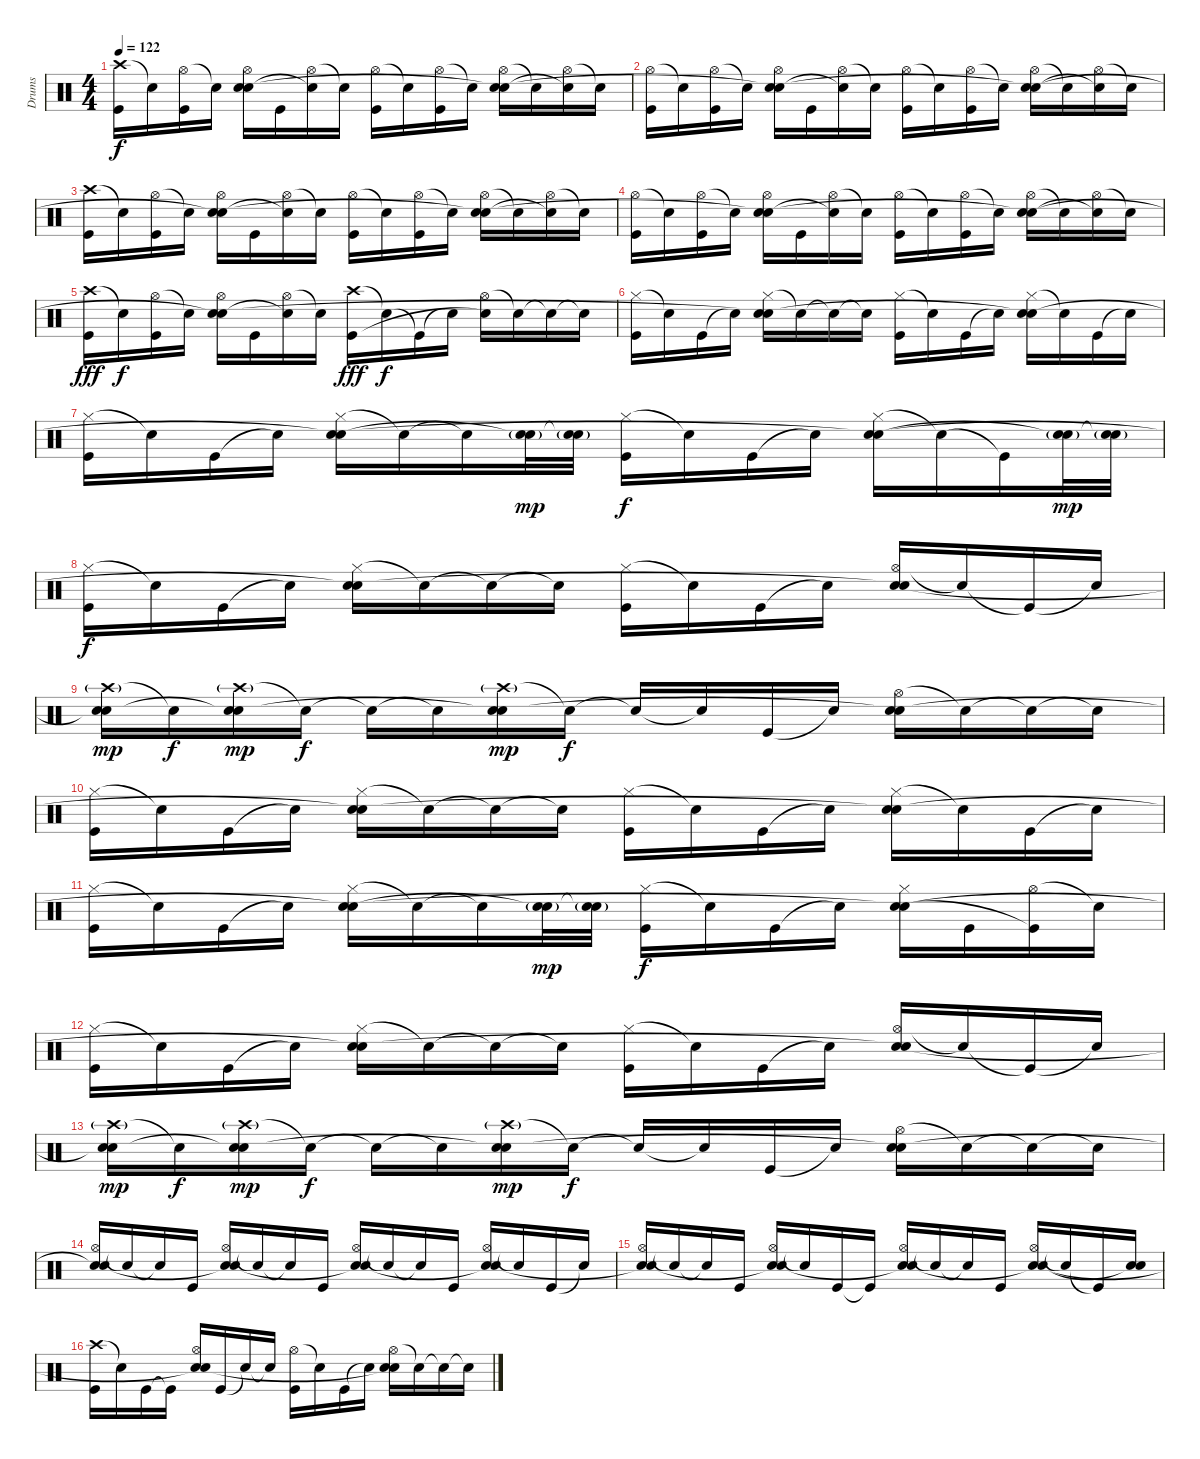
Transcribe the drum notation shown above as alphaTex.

\track ("Drums" "Drums") {instrument percussion}
\staff {score}
\articulation defaults
\ts (4 4)
\tempo 122
\clef neutral
\ks c
("Crash high (hit)" "Kick (hit)").16{dy f} "Snare (hit)"{t}.16 ("Hi-Hat (open)" "Kick (hit)").16 "Snare (hit)"{t}.16 ("Hi-Hat (open)" "Electric Snare (hit)" "Snare (hit)"{t}).16 "Kick (hit)".16 ("Hi-Hat (open)" "Snare (hit)"{t}).16 "Snare (hit)"{t}.16 ("Hi-Hat (open)" "Kick (hit)").16 "Snare (hit)"{t}.16 ("Hi-Hat (open)" "Kick (hit)").16 "Snare (hit)"{t}.16 ("Hi-Hat (open)" "Electric Snare (hit)" "Snare (hit)"{t}).16 "Snare (hit)"{t}.16 ("Hi-Hat (open)" "Snare (hit)"{t}).16 "Snare (hit)"{t}.16 |
("Hi-Hat (open)" "Kick (hit)").16 "Snare (hit)"{t}.16 ("Hi-Hat (open)" "Kick (hit)").16 "Snare (hit)"{t}.16 ("Hi-Hat (open)" "Electric Snare (hit)" "Snare (hit)"{t}).16 "Kick (hit)".16 ("Hi-Hat (open)" "Snare (hit)"{t}).16 "Snare (hit)"{t}.16 ("Hi-Hat (open)" "Kick (hit)").16 "Snare (hit)"{t}.16 ("Hi-Hat (open)" "Kick (hit)").16 "Snare (hit)"{t}.16 ("Hi-Hat (open)" "Electric Snare (hit)" "Snare (hit)"{t}).16 "Snare (hit)"{t}.16 ("Hi-Hat (open)" "Snare (hit)"{t}).16 "Snare (hit)"{t}.16 |
("Crash high (hit)" "Kick (hit)").16 "Snare (hit)"{t}.16 ("Hi-Hat (open)" "Kick (hit)").16 "Snare (hit)"{t}.16 ("Hi-Hat (open)" "Electric Snare (hit)" "Snare (hit)"{t}).16 "Kick (hit)".16 ("Hi-Hat (open)" "Snare (hit)"{t}).16 "Snare (hit)"{t}.16 ("Hi-Hat (open)" "Kick (hit)").16 "Snare (hit)"{t}.16 ("Hi-Hat (open)" "Kick (hit)").16 "Snare (hit)"{t}.16 ("Hi-Hat (open)" "Electric Snare (hit)" "Snare (hit)"{t}).16 "Snare (hit)"{t}.16 ("Hi-Hat (open)" "Snare (hit)"{t}).16 "Snare (hit)"{t}.16 |
("Hi-Hat (open)" "Kick (hit)").16 "Snare (hit)"{t}.16 ("Hi-Hat (open)" "Kick (hit)").16 "Snare (hit)"{t}.16 ("Hi-Hat (open)" "Electric Snare (hit)" "Snare (hit)"{t}).16 "Kick (hit)".16 ("Hi-Hat (open)" "Snare (hit)"{t}).16 "Snare (hit)"{t}.16 ("Hi-Hat (open)" "Kick (hit)").16 "Snare (hit)"{t}.16 ("Hi-Hat (open)" "Kick (hit)").16 "Snare (hit)"{t}.16 ("Hi-Hat (open)" "Electric Snare (hit)" "Snare (hit)"{t}).16 "Snare (hit)"{t}.16 ("Hi-Hat (open)" "Snare (hit)"{t}).16 "Snare (hit)"{t}.16 |
("Crash high (hit)" "Kick (hit)").16{dy fff} "Snare (hit)"{t}.16{dy f} ("Hi-Hat (open)" "Kick (hit)").16 "Snare (hit)"{t}.16 ("Hi-Hat (open)" "Electric Snare (hit)" "Snare (hit)"{t}).16 "Kick (hit)".16 ("Hi-Hat (open)" "Snare (hit)"{t}).16 "Snare (hit)"{t}.16 ("Crash high (hit)" "Kick (hit)").16{dy fff} "Snare (hit)"{t}.16{dy f} "Kick (hit)"{t}.16 "Snare (hit)"{t}.16 ("Hi-Hat (open)" "Snare (hit)"{t}).16 "Snare (hit)"{t}.16 "Snare (hit)"{t}.16 "Snare (hit)"{t}.16 |
("Hi-Hat (closed)" "Kick (hit)").16 "Snare (hit)"{t}.16 "Kick (hit)".16 "Snare (hit)"{t}.16 ("Hi-Hat (closed)" "Electric Snare (hit)" "Snare (hit)"{t}).16 "Snare (hit)"{t}.16 "Snare (hit)"{t}.16 "Snare (hit)"{t}.16 ("Hi-Hat (closed)" "Kick (hit)").16 "Snare (hit)"{t}.16 "Kick (hit)".16 "Snare (hit)"{t}.16 ("Hi-Hat (closed)" "Electric Snare (hit)" "Snare (hit)"{t}).16 "Snare (hit)"{t}.16 "Kick (hit)".16 "Snare (hit)"{t}.16 |
("Hi-Hat (closed)" "Kick (hit)").16 "Snare (hit)"{t}.16 "Kick (hit)".16 "Snare (hit)"{t}.16 ("Hi-Hat (closed)" "Electric Snare (hit)" "Snare (hit)"{t}).16 "Snare (hit)"{t}.16 "Snare (hit)"{t}.16 ("Electric Snare (hit)"{g} "Snare (hit)"{t}).32{dy mp} ("Electric Snare (hit)"{g} "Snare (hit)"{t}).32 ("Hi-Hat (closed)" "Kick (hit)").16{dy f} "Snare (hit)"{t}.16 "Kick (hit)".16 "Snare (hit)"{t}.16 ("Hi-Hat (closed)" "Electric Snare (hit)" "Snare (hit)"{t}).16 "Snare (hit)"{t}.16 "Kick (hit)"{t}.16 ("Electric Snare (hit)"{g} "Snare (hit)"{t}).32{dy mp} ("Electric Snare (hit)"{g} "Snare (hit)"{t}).32 |
("Hi-Hat (closed)" "Kick (hit)").16{dy f} "Snare (hit)"{t}.16 "Kick (hit)".16 "Snare (hit)"{t}.16 ("Hi-Hat (closed)" "Electric Snare (hit)" "Snare (hit)"{t}).16 "Snare (hit)"{t}.16 "Snare (hit)"{t}.16 "Snare (hit)"{t}.16 ("Hi-Hat (closed)" "Kick (hit)").16 "Snare (hit)"{t}.16 "Kick (hit)".16 "Snare (hit)"{t}.16 ("Hi-Hat (open)" "Electric Snare (hit)" "Snare (hit)"{t}).16 "Snare (hit)"{t}.16 "Kick (hit)"{t}.16 "Snare (hit)"{t}.16 |
("Crash high (hit)"{g} "Electric Snare (hit)" "Snare (hit)"{t}).16{dy mp} "Snare (hit)"{t}.16{dy f} ("Crash high (hit)"{g} "Electric Snare (hit)" "Snare (hit)"{t}).16{dy mp} "Snare (hit)"{t}.16{dy f} "Snare (hit)"{t}.16 "Snare (hit)"{t}.16 ("Crash high (hit)"{g} "Electric Snare (hit)" "Snare (hit)"{t}).16{dy mp} "Snare (hit)"{t}.16{dy f} "Snare (hit)"{t}.16 "Snare (hit)"{t}.16 "Kick (hit)".16 "Snare (hit)"{t}.16 ("Hi-Hat (open)" "Electric Snare (hit)" "Snare (hit)"{t}).16 "Snare (hit)"{t}.16 "Snare (hit)"{t}.16 "Snare (hit)"{t}.16 |
("Hi-Hat (closed)" "Kick (hit)").16 "Snare (hit)"{t}.16 "Kick (hit)".16 "Snare (hit)"{t}.16 ("Hi-Hat (closed)" "Electric Snare (hit)" "Snare (hit)"{t}).16 "Snare (hit)"{t}.16 "Snare (hit)"{t}.16 "Snare (hit)"{t}.16 ("Hi-Hat (closed)" "Kick (hit)").16 "Snare (hit)"{t}.16 "Kick (hit)".16 "Snare (hit)"{t}.16 ("Hi-Hat (closed)" "Electric Snare (hit)" "Snare (hit)"{t}).16 "Snare (hit)"{t}.16 "Kick (hit)".16 "Snare (hit)"{t}.16 |
("Hi-Hat (closed)" "Kick (hit)").16 "Snare (hit)"{t}.16 "Kick (hit)".16 "Snare (hit)"{t}.16 ("Hi-Hat (closed)" "Electric Snare (hit)" "Snare (hit)"{t}).16 "Snare (hit)"{t}.16 "Snare (hit)"{t}.16 ("Electric Snare (hit)"{g} "Snare (hit)"{t}).32{dy mp} ("Electric Snare (hit)"{g} "Snare (hit)"{t}).32 ("Hi-Hat (closed)" "Kick (hit)").16{dy f} "Snare (hit)"{t}.16 "Kick (hit)".16 "Snare (hit)"{t}.16 ("Hi-Hat (closed)" "Electric Snare (hit)" "Snare (hit)"{t}).16 "Kick (hit)".16 ("Hi-Hat (open)" "Kick (hit)"{t}).16 "Snare (hit)"{t}.16 |
("Hi-Hat (closed)" "Kick (hit)").16 "Snare (hit)"{t}.16 "Kick (hit)".16 "Snare (hit)"{t}.16 ("Hi-Hat (closed)" "Electric Snare (hit)" "Snare (hit)"{t}).16 "Snare (hit)"{t}.16 "Snare (hit)"{t}.16 "Snare (hit)"{t}.16 ("Hi-Hat (closed)" "Kick (hit)").16 "Snare (hit)"{t}.16 "Kick (hit)".16 "Snare (hit)"{t}.16 ("Hi-Hat (open)" "Electric Snare (hit)" "Snare (hit)"{t}).16 "Snare (hit)"{t}.16 "Kick (hit)"{t}.16 "Snare (hit)"{t}.16 |
("Crash high (hit)"{g} "Electric Snare (hit)" "Snare (hit)"{t}).16{dy mp} "Snare (hit)"{t}.16{dy f} ("Crash high (hit)"{g} "Electric Snare (hit)" "Snare (hit)"{t}).16{dy mp} "Snare (hit)"{t}.16{dy f} "Snare (hit)"{t}.16 "Snare (hit)"{t}.16 ("Crash high (hit)"{g} "Electric Snare (hit)" "Snare (hit)"{t}).16{dy mp} "Snare (hit)"{t}.16{dy f} "Snare (hit)"{t}.16 "Snare (hit)"{t}.16 "Kick (hit)".16 "Snare (hit)"{t}.16 ("Hi-Hat (open)" "Electric Snare (hit)" "Snare (hit)"{t}).16 "Snare (hit)"{t}.16 "Snare (hit)"{t}.16 "Snare (hit)"{t}.16 |
("Hi-Hat (open)" "Electric Snare (hit)" "Snare (hit)"{t}).16 "Snare (hit)"{t}.16 "Snare (hit)"{t}.16 "Kick (hit)".16 ("Hi-Hat (open)" "Electric Snare (hit)" "Snare (hit)"{t}).16 "Snare (hit)"{t}.16 "Snare (hit)"{t}.16 "Kick (hit)".16 ("Hi-Hat (open)" "Electric Snare (hit)" "Snare (hit)"{t}).16 "Snare (hit)"{t}.16 "Snare (hit)"{t}.16 "Kick (hit)".16 ("Hi-Hat (open)" "Electric Snare (hit)" "Snare (hit)"{t}).16 "Snare (hit)"{t}.16 "Kick (hit)".16 "Snare (hit)"{t}.16 |
("Hi-Hat (open)" "Electric Snare (hit)" "Snare (hit)"{t}).16 "Snare (hit)"{t}.16 "Snare (hit)"{t}.16 "Kick (hit)".16 ("Hi-Hat (open)" "Electric Snare (hit)" "Snare (hit)"{t}).16 "Snare (hit)"{t}.16 "Kick (hit)".16 "Kick (hit)"{t}.16 ("Hi-Hat (open)" "Electric Snare (hit)" "Snare (hit)"{t}).16 "Snare (hit)"{t}.16 "Snare (hit)"{t}.16 "Kick (hit)".16 ("Hi-Hat (open)" "Electric Snare (hit)" "Snare (hit)"{t}).16 "Snare (hit)"{t}.16 "Kick (hit)"{t}.16 ("Electric Snare (hit)" "Snare (hit)"{t}).16 |
("Crash high (hit)" "Kick (hit)").16 "Snare (hit)"{t}.16 "Kick (hit)".16 "Kick (hit)"{t}.16 ("Hi-Hat (open)" "Electric Snare (hit)" "Snare (hit)"{t}).16 "Kick (hit)".16 "Snare (hit)"{t}.16 "Snare (hit)"{t}.16 ("Hi-Hat (open)" "Kick (hit)").16 "Snare (hit)"{t}.16 "Kick (hit)".16 "Snare (hit)"{t}.16 ("Hi-Hat (open)" "Electric Snare (hit)" "Snare (hit)"{t}).16 "Snare (hit)"{t}.16 "Snare (hit)"{t}.16 "Snare (hit)"{t}.16
